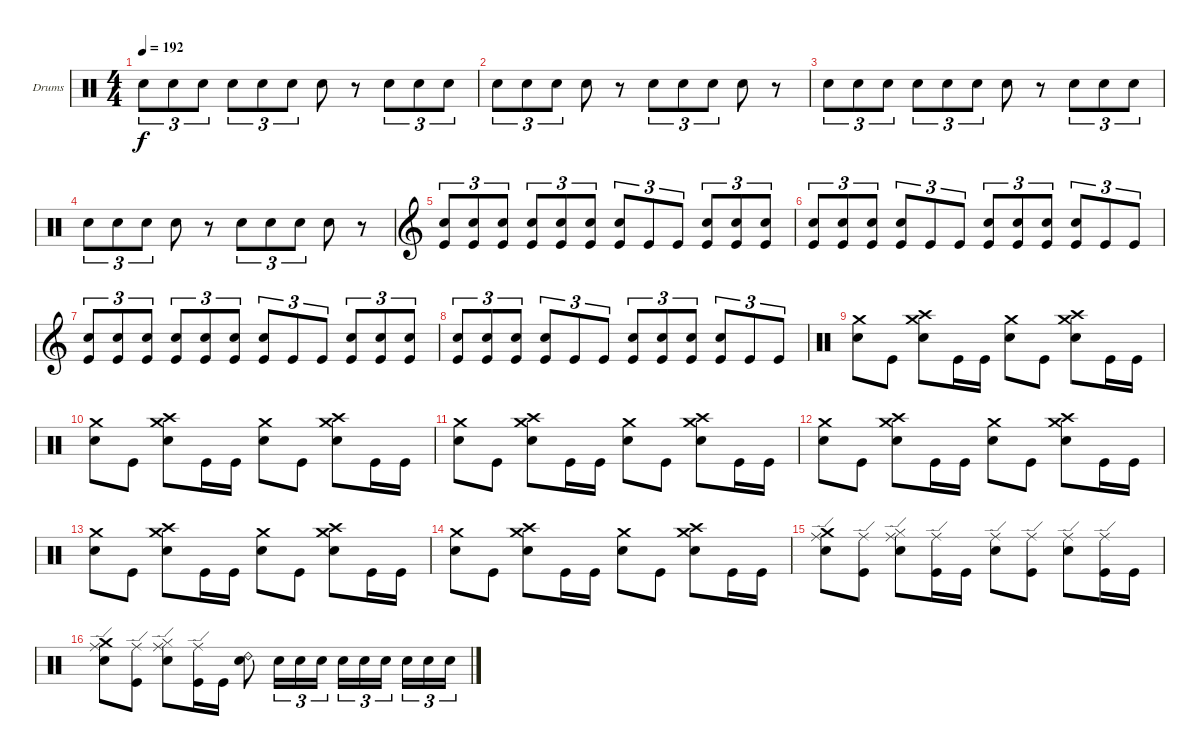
\defaultSystemsLayout 4
\bracketExtendMode groupsimilarinstruments
\firstSystemTrackNameOrientation horizontal
\otherSystemsTrackNameOrientation horizontal
\track ("Drumkit" "Drums") {instrument percussion}
\staff {score}
\articulation defaults
\ts (4 4)
\tempo 192
\clef neutral
\scale
0.472222
\ks c "Snare (hit) 2".8{tu (3 2) dy f} "Snare (hit) 2".8{tu (3 2)} "Snare (hit) 2".8{tu (3 2)} "Snare (hit) 2".8{tu (3 2)} "Snare (hit) 2".8{tu (3 2)} "Snare (hit) 2".8{tu (3 2)} "Snare (hit) 2".8
r.8 "Snare (hit) 2".8{tu (3 2)} "Snare (hit) 2".8{tu (3 2)} "Snare (hit) 2".8{tu (3 2)} |
\scale
0.263889 "Snare (hit) 2".8{tu (3 2)} "Snare (hit) 2".8{tu (3 2)} "Snare (hit) 2".8{tu (3 2)} "Snare (hit) 2".8 r.8 "Snare (hit) 2".8{tu (3 2)} "Snare (hit) 2".8{tu (3 2)} "Snare (hit) 2".8{tu (3 2)} "Snare (hit) 2".8 r.8 |
\scale
0.263889 "Snare (hit) 2".8{tu (3 2)} "Snare (hit) 2".8{tu (3 2)} "Snare (hit) 2".8{tu (3 2)} "Snare (hit) 2".8{tu (3 2)} "Snare (hit) 2".8{tu (3 2)} "Snare (hit) 2".8{tu (3 2)} "Snare (hit) 2".8 r.8 "Snare (hit) 2".8{tu (3 2)} "Snare (hit) 2".8{tu (3 2)} "Snare (hit) 2".8{tu (3 2)} |
\scale
0.333333 "Snare (hit) 2".8{tu (3 2)} "Snare (hit) 2".8{tu (3 2)} "Snare (hit) 2".8{tu (3 2)} "Snare (hit) 2".8 r.8 "Snare (hit) 2".8{tu (3 2)} "Snare (hit) 2".8{tu (3 2)} "Snare (hit) 2".8{tu (3 2)} "Snare (hit) 2".8 r.8 |
\clef g2
\scale
0.333333 ("Snare (hit) 2" "Kick (hit)").8{tu (3 2)} ("Snare (hit) 2" "Kick (hit)").8{tu (3 2)} ("Snare (hit) 2" "Kick (hit)").8{tu (3 2)} ("Kick (hit)" "Snare (hit) 2").8{tu (3 2)} ("Kick (hit)" "Snare (hit) 2").8{tu (3 2)} ("Kick (hit)" "Snare (hit) 2").8{tu (3 2)} ("Kick (hit)" "Snare (hit) 2").8{tu (3 2)} "Kick (hit)".8{tu (3 2)} "Kick (hit)".8{tu (3 2)} ("Kick (hit)" "Snare (hit) 2").8{tu (3 2)} ("Kick (hit)" "Snare (hit) 2").8{tu (3 2)} ("Kick (hit)" "Snare (hit) 2").8{tu (3 2)} |
\scale
0.333333 ("Kick (hit)" "Snare (hit) 2").8{tu (3 2)} ("Kick (hit)" "Snare (hit) 2").8{tu (3 2)} ("Kick (hit)" "Snare (hit) 2").8{tu (3 2)} ("Kick (hit)" "Snare (hit) 2").8{tu (3 2)} "Kick (hit)".8{tu (3 2)} "Kick (hit)".8{tu (3 2)} ("Kick (hit)" "Snare (hit) 2").8{tu (3 2)} ("Kick (hit)" "Snare (hit) 2").8{tu (3 2)} ("Kick (hit)" "Snare (hit) 2").8{tu (3 2)} ("Kick (hit)" "Snare (hit) 2").8{tu (3 2)} "Kick (hit)".8{tu (3 2)} "Kick (hit)".8{tu (3 2)} |
\scale
0.333333 ("Snare (hit) 2" "Kick (hit)").8{tu (3 2)} ("Snare (hit) 2" "Kick (hit)").8{tu (3 2)} ("Snare (hit) 2" "Kick (hit)").8{tu (3 2)} ("Kick (hit)" "Snare (hit) 2").8{tu (3 2)} ("Kick (hit)" "Snare (hit) 2").8{tu (3 2)} ("Kick (hit)" "Snare (hit) 2").8{tu (3 2)} ("Kick (hit)" "Snare (hit) 2").8{tu (3 2)} "Kick (hit)".8{tu (3 2)} "Kick (hit)".8{tu (3 2)} ("Kick (hit)" "Snare (hit) 2").8{tu (3 2)} ("Kick (hit)" "Snare (hit) 2").8{tu (3 2)} ("Kick (hit)" "Snare (hit) 2").8{tu (3 2)} |
\scale
0.333333 ("Kick (hit)" "Snare (hit) 2").8{tu (3 2)} ("Kick (hit)" "Snare (hit) 2").8{tu (3 2)} ("Kick (hit)" "Snare (hit) 2").8{tu (3 2)} ("Kick (hit)" "Snare (hit) 2").8{tu (3 2)} "Kick (hit)".8{tu (3 2)} "Kick (hit)".8{tu (3 2)} ("Kick (hit)" "Snare (hit) 2").8{tu (3 2)} ("Kick (hit)" "Snare (hit) 2").8{tu (3 2)} ("Kick (hit)" "Snare (hit) 2").8{tu (3 2)} ("Kick (hit)" "Snare (hit) 2").8{tu (3 2)} "Kick (hit)".8{tu (3 2)} "Kick (hit)".8{tu (3 2)} |
\clef neutral
\scale
0.333333 ("Snare (hit) 2" "Crash medium (hit)").8 "Kick (hit)".8 ("Snare (hit) 2" "Crash medium (hit)" "Crash high (hit)").8 "Kick (hit)".16 "Kick (hit)".16 ("Snare (hit) 2" "Crash medium (hit)").8 "Kick (hit)".8 ("Snare (hit) 2" "Crash medium (hit)" "Crash high (hit)").8 "Kick (hit)".16 "Kick (hit)".16 |
\scale
0.333333 ("Snare (hit) 2" "Crash medium (hit)").8 "Kick (hit)".8 ("Snare (hit) 2" "Crash medium (hit)" "Crash high (hit)").8 "Kick (hit)".16 "Kick (hit)".16 ("Snare (hit) 2" "Crash medium (hit)").8 "Kick (hit)".8 ("Snare (hit) 2" "Crash medium (hit)" "Crash high (hit)").8 "Kick (hit)".16 "Kick (hit)".16 |
\scale
0.333333 ("Snare (hit) 2" "Crash medium (hit)").8 "Kick (hit)".8 ("Snare (hit) 2" "Crash medium (hit)" "Crash high (hit)").8 "Kick (hit)".16 "Kick (hit)".16 ("Snare (hit) 2" "Crash medium (hit)").8 "Kick (hit)".8 ("Snare (hit) 2" "Crash medium (hit)" "Crash high (hit)").8 "Kick (hit)".16 "Kick (hit)".16 |
\scale
0.333333 ("Snare (hit) 2" "Crash medium (hit)").8 "Kick (hit)".8 ("Snare (hit) 2" "Crash medium (hit)" "Crash high (hit)").8 "Kick (hit)".16 "Kick (hit)".16 ("Snare (hit) 2" "Crash medium (hit)").8 "Kick (hit)".8 ("Snare (hit) 2" "Crash medium (hit)" "Crash high (hit)").8 "Kick (hit)".16 "Kick (hit)".16 |
\scale
0.333333 ("Snare (hit) 2" "Crash medium (hit)").8 "Kick (hit)".8 ("Snare (hit) 2" "Crash medium (hit)" "Crash high (hit)").8 "Kick (hit)".16 "Kick (hit)".16 ("Snare (hit) 2" "Crash medium (hit)").8 "Kick (hit)".8 ("Snare (hit) 2" "Crash medium (hit)" "Crash high (hit)").8 "Kick (hit)".16 "Kick (hit)".16 |
\scale
0.333333 ("Snare (hit) 2" "Crash medium (hit)").8 "Kick (hit)".8 ("Snare (hit) 2" "Crash medium (hit)" "Crash high (hit)").8 "Kick (hit)".16 "Kick (hit)".16 ("Snare (hit) 2" "Crash medium (hit)").8 "Kick (hit)".8 ("Snare (hit) 2" "Crash medium (hit)" "Crash high (hit)").8 "Kick (hit)".16 "Kick (hit)".16 |
\scale
0.333333 ("Snare (hit) 2" "Crash medium (hit)" "Ride (edge)").8 ("Kick (hit)" "Ride (edge)").8 ("Snare (hit) 2" "Hi-Hat (closed)" "Ride (edge)").8 ("Kick (hit)" "Ride (edge)").16 "Kick (hit)".16 ("Snare (hit) 2" "Ride (edge)").8 ("Kick (hit)" "Ride (edge)").8 ("Snare (hit) 2" "Ride (edge)").8 ("Kick (hit)" "Ride (edge)").16 "Kick (hit)".16 |
\scale
0.333333 ("Snare (hit) 2" "Crash medium (hit)" "Ride (edge)").8 ("Kick (hit)" "Ride (edge)").8 ("Snare (hit) 2" "Hi-Hat (closed)" "Ride (edge)").8 ("Kick (hit)" "Ride (edge)").16 "Kick (hit)".16 ("Ride (bell) 2" "Snare (hit) 2").8 "Snare (hit) 2".16{tu (3 2)} "Snare (hit) 2".16{tu (3 2)} "Snare (hit) 2".16{tu (3 2)} "Snare (hit) 2".16{tu (3 2)} "Snare (hit) 2".16{tu (3 2)} "Snare (hit) 2".16{tu (3 2)} "Snare (hit) 2".16{tu (3 2)} "Snare (hit) 2".16{tu (3 2)} "Snare (hit) 2".16{tu (3 2)}
